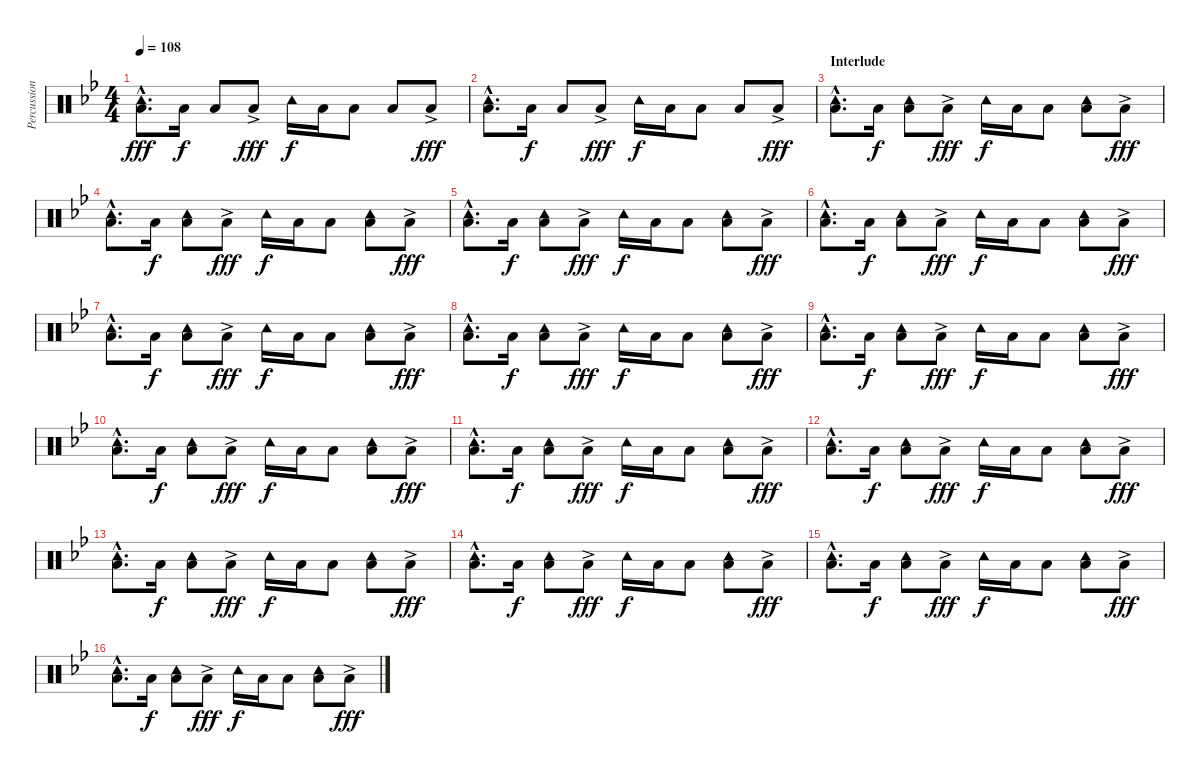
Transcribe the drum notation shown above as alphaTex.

\track ("Percussion" "Percussion") {instrument percussion}
\staff {score}
\articulation defaults
\ts (4 4)
\tempo 108
\clef neutral
\ks bb
("Tambourine (hit)"{hac} "Low Tom (hit)"{hac}).8{d dy fff} "Low Tom (hit)".16{dy f} "Low Tom (hit)".8 "Low Tom (hit)"{ac}.8{dy fff} "Tambourine (hit)".16{dy f} "Low Tom (hit)".16 "Low Tom (hit)".8 "Low Tom (hit)".8 "Low Tom (hit)"{ac}.8{dy fff} |
("Tambourine (hit)"{hac} "Low Tom (hit)"{hac}).8{d} "Low Tom (hit)".16{dy f} "Low Tom (hit)".8 "Low Tom (hit)"{ac}.8{dy fff} "Tambourine (hit)".16{dy f} "Low Tom (hit)".16 "Low Tom (hit)".8 "Low Tom (hit)".8 "Low Tom (hit)"{ac}.8{dy fff} |
\section ("" "Interlude")
("Tambourine (hit)"{hac} "Low Tom (hit)"{hac}).8{d} "Low Tom (hit)".16{dy f} ("Tambourine (hit)" "Low Tom (hit)").8 "Low Tom (hit)"{ac}.8{dy fff} "Tambourine (hit)".16{dy f} "Low Tom (hit)".16 "Low Tom (hit)".8 ("Tambourine (hit)" "Low Tom (hit)").8 "Low Tom (hit)"{ac}.8{dy fff} |
("Tambourine (hit)"{hac} "Low Tom (hit)"{hac}).8{d} "Low Tom (hit)".16{dy f} ("Tambourine (hit)" "Low Tom (hit)").8 "Low Tom (hit)"{ac}.8{dy fff} "Tambourine (hit)".16{dy f} "Low Tom (hit)".16 "Low Tom (hit)".8 ("Tambourine (hit)" "Low Tom (hit)").8 "Low Tom (hit)"{ac}.8{dy fff} |
("Tambourine (hit)"{hac} "Low Tom (hit)"{hac}).8{d} "Low Tom (hit)".16{dy f} ("Tambourine (hit)" "Low Tom (hit)").8 "Low Tom (hit)"{ac}.8{dy fff} "Tambourine (hit)".16{dy f} "Low Tom (hit)".16 "Low Tom (hit)".8 ("Tambourine (hit)" "Low Tom (hit)").8 "Low Tom (hit)"{ac}.8{dy fff} |
("Tambourine (hit)"{hac} "Low Tom (hit)"{hac}).8{d} "Low Tom (hit)".16{dy f} ("Tambourine (hit)" "Low Tom (hit)").8 "Low Tom (hit)"{ac}.8{dy fff} "Tambourine (hit)".16{dy f} "Low Tom (hit)".16 "Low Tom (hit)".8 ("Tambourine (hit)" "Low Tom (hit)").8 "Low Tom (hit)"{ac}.8{dy fff} |
("Tambourine (hit)"{hac} "Low Tom (hit)"{hac}).8{d} "Low Tom (hit)".16{dy f} ("Tambourine (hit)" "Low Tom (hit)").8 "Low Tom (hit)"{ac}.8{dy fff} "Tambourine (hit)".16{dy f} "Low Tom (hit)".16 "Low Tom (hit)".8 ("Tambourine (hit)" "Low Tom (hit)").8 "Low Tom (hit)"{ac}.8{dy fff} |
("Tambourine (hit)"{hac} "Low Tom (hit)"{hac}).8{d} "Low Tom (hit)".16{dy f} ("Tambourine (hit)" "Low Tom (hit)").8 "Low Tom (hit)"{ac}.8{dy fff} "Tambourine (hit)".16{dy f} "Low Tom (hit)".16 "Low Tom (hit)".8 ("Tambourine (hit)" "Low Tom (hit)").8 "Low Tom (hit)"{ac}.8{dy fff} |
("Tambourine (hit)"{hac} "Low Tom (hit)"{hac}).8{d} "Low Tom (hit)".16{dy f} ("Tambourine (hit)" "Low Tom (hit)").8 "Low Tom (hit)"{ac}.8{dy fff} "Tambourine (hit)".16{dy f} "Low Tom (hit)".16 "Low Tom (hit)".8 ("Tambourine (hit)" "Low Tom (hit)").8 "Low Tom (hit)"{ac}.8{dy fff} |
("Tambourine (hit)"{hac} "Low Tom (hit)"{hac}).8{d} "Low Tom (hit)".16{dy f} ("Tambourine (hit)" "Low Tom (hit)").8 "Low Tom (hit)"{ac}.8{dy fff} "Tambourine (hit)".16{dy f} "Low Tom (hit)".16 "Low Tom (hit)".8 ("Tambourine (hit)" "Low Tom (hit)").8 "Low Tom (hit)"{ac}.8{dy fff} |
("Tambourine (hit)"{hac} "Low Tom (hit)"{hac}).8{d} "Low Tom (hit)".16{dy f} ("Tambourine (hit)" "Low Tom (hit)").8 "Low Tom (hit)"{ac}.8{dy fff} "Tambourine (hit)".16{dy f} "Low Tom (hit)".16 "Low Tom (hit)".8 ("Tambourine (hit)" "Low Tom (hit)").8 "Low Tom (hit)"{ac}.8{dy fff} |
("Tambourine (hit)"{hac} "Low Tom (hit)"{hac}).8{d} "Low Tom (hit)".16{dy f} ("Tambourine (hit)" "Low Tom (hit)").8 "Low Tom (hit)"{ac}.8{dy fff} "Tambourine (hit)".16{dy f} "Low Tom (hit)".16 "Low Tom (hit)".8 ("Tambourine (hit)" "Low Tom (hit)").8 "Low Tom (hit)"{ac}.8{dy fff} |
("Tambourine (hit)"{hac} "Low Tom (hit)"{hac}).8{d} "Low Tom (hit)".16{dy f} ("Tambourine (hit)" "Low Tom (hit)").8 "Low Tom (hit)"{ac}.8{dy fff} "Tambourine (hit)".16{dy f} "Low Tom (hit)".16 "Low Tom (hit)".8 ("Tambourine (hit)" "Low Tom (hit)").8 "Low Tom (hit)"{ac}.8{dy fff} |
("Tambourine (hit)"{hac} "Low Tom (hit)"{hac}).8{d} "Low Tom (hit)".16{dy f} ("Tambourine (hit)" "Low Tom (hit)").8 "Low Tom (hit)"{ac}.8{dy fff} "Tambourine (hit)".16{dy f} "Low Tom (hit)".16 "Low Tom (hit)".8 ("Tambourine (hit)" "Low Tom (hit)").8 "Low Tom (hit)"{ac}.8{dy fff} |
("Tambourine (hit)"{hac} "Low Tom (hit)"{hac}).8{d} "Low Tom (hit)".16{dy f} ("Tambourine (hit)" "Low Tom (hit)").8 "Low Tom (hit)"{ac}.8{dy fff} "Tambourine (hit)".16{dy f} "Low Tom (hit)".16 "Low Tom (hit)".8 ("Tambourine (hit)" "Low Tom (hit)").8 "Low Tom (hit)"{ac}.8{dy fff} |
("Tambourine (hit)"{hac} "Low Tom (hit)"{hac}).8{d} "Low Tom (hit)".16{dy f} ("Tambourine (hit)" "Low Tom (hit)").8 "Low Tom (hit)"{ac}.8{dy fff} "Tambourine (hit)".16{dy f} "Low Tom (hit)".16 "Low Tom (hit)".8 ("Tambourine (hit)" "Low Tom (hit)").8 "Low Tom (hit)"{ac}.8{dy fff}
